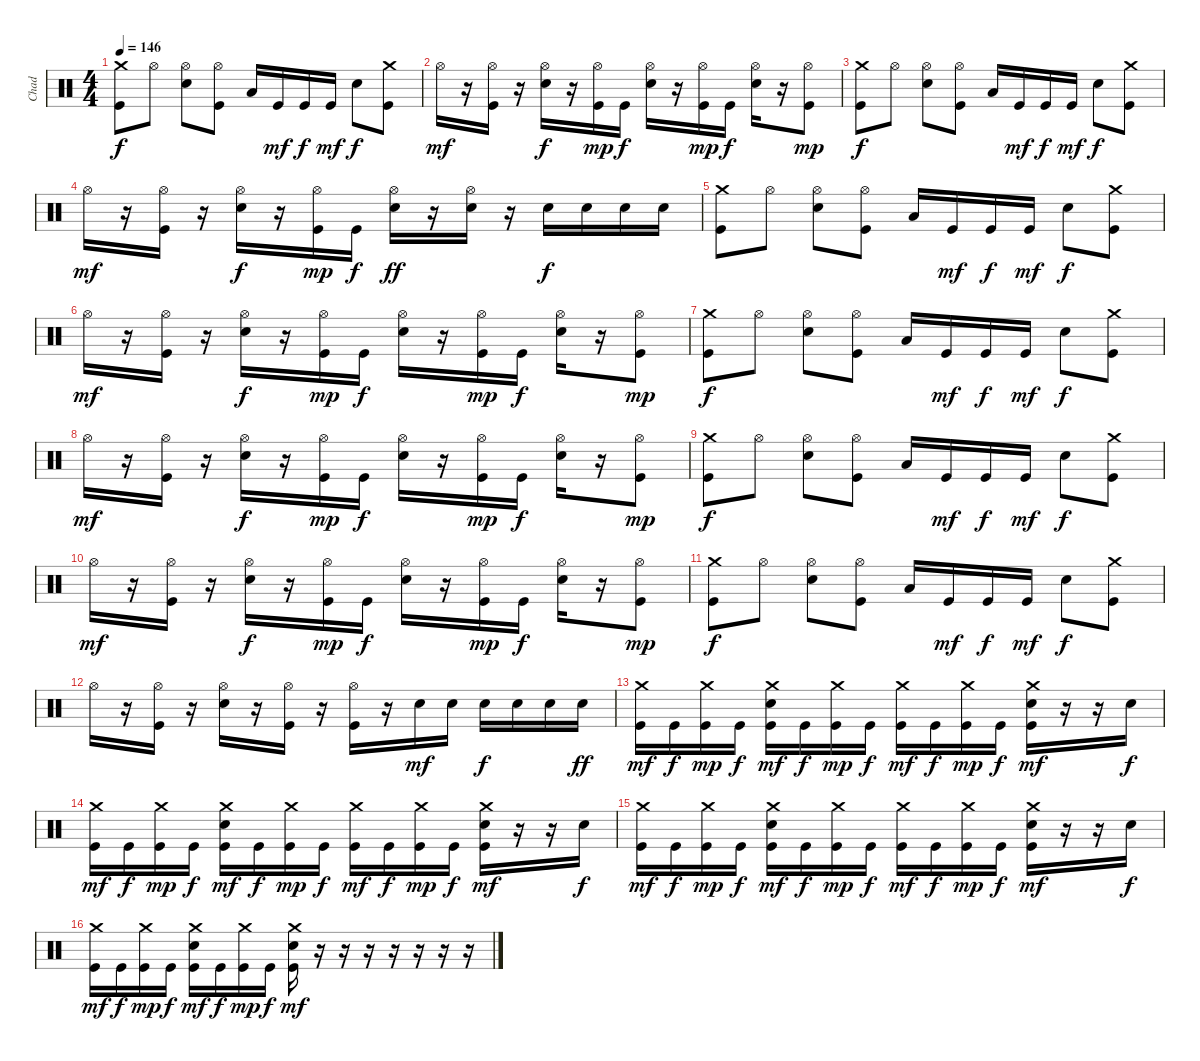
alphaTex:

\track ("Chad" "Chad") {instrument percussion}
\staff {score}
\articulation defaults
\ts (4 4)
\tempo 146
\clef neutral
\ks c
("Crash medium (hit)" "Kick (hit)").8{dy f} "Hi-Hat (open)".8 ("Hi-Hat (open)" "Snare (hit) 2").8 ("Hi-Hat (open)" "Kick (hit)").8 "Low Floor Tom (hit)".16 "Kick (hit)".16{dy mf} "Kick (hit)".16{dy f} "Kick (hit)".16{dy mf} "Snare (hit) 2".8{dy f} ("Crash medium (hit)" "Kick (hit)").8 |
"Hi-Hat (open)".16{dy mf} r.16 ("Hi-Hat (open)" "Kick (hit)").16 r.16 ("Hi-Hat (open)" "Snare (hit) 2").16{dy f} r.16 ("Hi-Hat (open)" "Kick (hit)").16{dy mp} "Kick (hit)".16{dy f} ("Hi-Hat (open)" "Snare (hit) 2").16 r.16 ("Hi-Hat (open)" "Kick (hit)").16{dy mp} "Kick (hit)".16{dy f} ("Hi-Hat (open)" "Snare (hit) 2").16 r.16 ("Hi-Hat (open)" "Kick (hit)").8{dy mp} |
("Crash medium (hit)" "Kick (hit)").8{dy f} "Hi-Hat (open)".8 ("Hi-Hat (open)" "Snare (hit) 2").8 ("Hi-Hat (open)" "Kick (hit)").8 "Low Floor Tom (hit)".16 "Kick (hit)".16{dy mf} "Kick (hit)".16{dy f} "Kick (hit)".16{dy mf} "Snare (hit) 2".8{dy f} ("Crash medium (hit)" "Kick (hit)").8 |
"Hi-Hat (open)".16{dy mf} r.16 ("Hi-Hat (open)" "Kick (hit)").16 r.16 ("Hi-Hat (open)" "Snare (hit) 2").16{dy f} r.16 ("Hi-Hat (open)" "Kick (hit)").16{dy mp} "Kick (hit)".16{dy f} ("Hi-Hat (open)" "Snare (hit) 2").16{dy ff} r.16 ("Hi-Hat (open)" "Snare (hit) 2").16 r.16 "Snare (hit) 2".16{dy f} "Snare (hit) 2".16 "Snare (hit) 2".16 "Snare (hit) 2".16 |
("Crash medium (hit)" "Kick (hit)").8 "Hi-Hat (open)".8 ("Hi-Hat (open)" "Snare (hit) 2").8 ("Hi-Hat (open)" "Kick (hit)").8 "Low Floor Tom (hit)".16 "Kick (hit)".16{dy mf} "Kick (hit)".16{dy f} "Kick (hit)".16{dy mf} "Snare (hit) 2".8{dy f} ("Crash medium (hit)" "Kick (hit)").8 |
"Hi-Hat (open)".16{dy mf} r.16 ("Hi-Hat (open)" "Kick (hit)").16 r.16 ("Hi-Hat (open)" "Snare (hit) 2").16{dy f} r.16 ("Hi-Hat (open)" "Kick (hit)").16{dy mp} "Kick (hit)".16{dy f} ("Hi-Hat (open)" "Snare (hit) 2").16 r.16 ("Hi-Hat (open)" "Kick (hit)").16{dy mp} "Kick (hit)".16{dy f} ("Hi-Hat (open)" "Snare (hit) 2").16 r.16 ("Hi-Hat (open)" "Kick (hit)").8{dy mp} |
("Crash medium (hit)" "Kick (hit)").8{dy f} "Hi-Hat (open)".8 ("Hi-Hat (open)" "Snare (hit) 2").8 ("Hi-Hat (open)" "Kick (hit)").8 "Low Floor Tom (hit)".16 "Kick (hit)".16{dy mf} "Kick (hit)".16{dy f} "Kick (hit)".16{dy mf} "Snare (hit) 2".8{dy f} ("Crash medium (hit)" "Kick (hit)").8 |
"Hi-Hat (open)".16{dy mf} r.16 ("Hi-Hat (open)" "Kick (hit)").16 r.16 ("Hi-Hat (open)" "Snare (hit) 2").16{dy f} r.16 ("Hi-Hat (open)" "Kick (hit)").16{dy mp} "Kick (hit)".16{dy f} ("Hi-Hat (open)" "Snare (hit) 2").16 r.16 ("Hi-Hat (open)" "Kick (hit)").16{dy mp} "Kick (hit)".16{dy f} ("Hi-Hat (open)" "Snare (hit) 2").16 r.16 ("Hi-Hat (open)" "Kick (hit)").8{dy mp} |
("Crash medium (hit)" "Kick (hit)").8{dy f} "Hi-Hat (open)".8 ("Hi-Hat (open)" "Snare (hit) 2").8 ("Hi-Hat (open)" "Kick (hit)").8 "Low Floor Tom (hit)".16 "Kick (hit)".16{dy mf} "Kick (hit)".16{dy f} "Kick (hit)".16{dy mf} "Snare (hit) 2".8{dy f} ("Crash medium (hit)" "Kick (hit)").8 |
"Hi-Hat (open)".16{dy mf} r.16 ("Hi-Hat (open)" "Kick (hit)").16 r.16 ("Hi-Hat (open)" "Snare (hit) 2").16{dy f} r.16 ("Hi-Hat (open)" "Kick (hit)").16{dy mp} "Kick (hit)".16{dy f} ("Hi-Hat (open)" "Snare (hit) 2").16 r.16 ("Hi-Hat (open)" "Kick (hit)").16{dy mp} "Kick (hit)".16{dy f} ("Hi-Hat (open)" "Snare (hit) 2").16 r.16 ("Hi-Hat (open)" "Kick (hit)").8{dy mp} |
("Crash medium (hit)" "Kick (hit)").8{dy f} "Hi-Hat (open)".8 ("Hi-Hat (open)" "Snare (hit) 2").8 ("Hi-Hat (open)" "Kick (hit)").8 "Low Floor Tom (hit)".16 "Kick (hit)".16{dy mf} "Kick (hit)".16{dy f} "Kick (hit)".16{dy mf} "Snare (hit) 2".8{dy f} ("Crash medium (hit)" "Kick (hit)").8 |
"Hi-Hat (open)".16 r.16 ("Hi-Hat (open)" "Kick (hit)").16 r.16 ("Hi-Hat (open)" "Snare (hit) 2").16 r.16 ("Hi-Hat (open)" "Kick (hit)").16 r.16 ("Hi-Hat (open)" "Kick (hit)").16 r.16 "Snare (hit) 2".16{dy mf} "Snare (hit) 2".16 "Snare (hit) 2".16{dy f} "Snare (hit) 2".16 "Snare (hit) 2".16 "Snare (hit) 2".16{dy ff} |
("Crash medium (hit)" "Kick (hit)").16{dy mf} "Kick (hit)".16{dy f} ("Crash medium (hit)" "Kick (hit)").16{dy mp} "Kick (hit)".16{dy f} ("Crash medium (hit)" "Snare (hit) 2" "Kick (hit)").16{dy mf} "Kick (hit)".16{dy f} ("Crash medium (hit)" "Kick (hit)").16{dy mp} "Kick (hit)".16{dy f} ("Crash medium (hit)" "Kick (hit)").16{dy mf} "Kick (hit)".16{dy f} ("Crash medium (hit)" "Kick (hit)").16{dy mp} "Kick (hit)".16{dy f} ("Crash medium (hit)" "Snare (hit) 2" "Kick (hit)").16{dy mf} r.16 r.16 "Snare (hit) 2".16{dy f} |
("Crash medium (hit)" "Kick (hit)").16{dy mf} "Kick (hit)".16{dy f} ("Crash medium (hit)" "Kick (hit)").16{dy mp} "Kick (hit)".16{dy f} ("Crash medium (hit)" "Snare (hit) 2" "Kick (hit)").16{dy mf} "Kick (hit)".16{dy f} ("Crash medium (hit)" "Kick (hit)").16{dy mp} "Kick (hit)".16{dy f} ("Crash medium (hit)" "Kick (hit)").16{dy mf} "Kick (hit)".16{dy f} ("Crash medium (hit)" "Kick (hit)").16{dy mp} "Kick (hit)".16{dy f} ("Crash medium (hit)" "Snare (hit) 2" "Kick (hit)").16{dy mf} r.16 r.16 "Snare (hit) 2".16{dy f} |
("Crash medium (hit)" "Kick (hit)").16{dy mf} "Kick (hit)".16{dy f} ("Crash medium (hit)" "Kick (hit)").16{dy mp} "Kick (hit)".16{dy f} ("Crash medium (hit)" "Snare (hit) 2" "Kick (hit)").16{dy mf} "Kick (hit)".16{dy f} ("Crash medium (hit)" "Kick (hit)").16{dy mp} "Kick (hit)".16{dy f} ("Crash medium (hit)" "Kick (hit)").16{dy mf} "Kick (hit)".16{dy f} ("Crash medium (hit)" "Kick (hit)").16{dy mp} "Kick (hit)".16{dy f} ("Crash medium (hit)" "Snare (hit) 2" "Kick (hit)").16{dy mf} r.16 r.16 "Snare (hit) 2".16{dy f} |
("Crash medium (hit)" "Kick (hit)").16{dy mf} "Kick (hit)".16{dy f} ("Crash medium (hit)" "Kick (hit)").16{dy mp} "Kick (hit)".16{dy f} ("Crash medium (hit)" "Snare (hit) 2" "Kick (hit)").16{dy mf} "Kick (hit)".16{dy f} ("Crash medium (hit)" "Kick (hit)").16{dy mp} "Kick (hit)".16{dy f} ("Crash medium (hit)" "Snare (hit) 2" "Kick (hit)").16{dy mf} r.16 r.16 r.16 r.16 r.16 r.16 r.16
